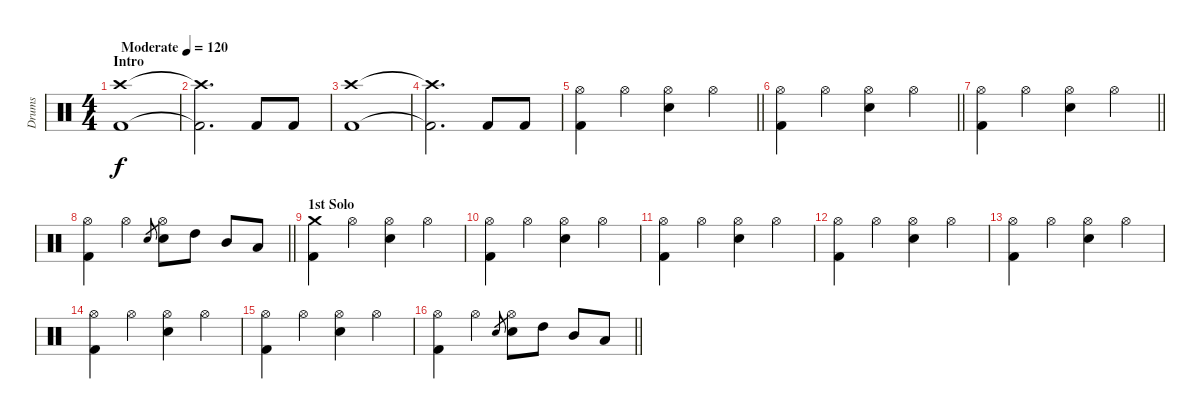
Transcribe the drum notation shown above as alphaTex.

\track ("Drums" "Drums") {instrument percussion}
\staff {score}
\articulation defaults
\ts (4 4)
\section ("" "Intro")
\tempo (120 "Moderate")
\clef neutral
\ks c
("Crash high (hit)" "Kick (hit) 2").1{dy f} |
("Crash high (hit)"{t} "Kick (hit) 2"{t}).2{d} "Kick (hit) 2".8 "Kick (hit) 2".8 |
("Crash high (hit)" "Kick (hit) 2").1 |
("Crash high (hit)"{t} "Kick (hit) 2"{t}).2{d} "Kick (hit) 2".8 "Kick (hit) 2".8 |
\barLineRight lightlight
("Hi-Hat (open)" "Kick (hit) 2").4 "Hi-Hat (open)".4 ("Hi-Hat (open)" "Electric Snare (hit)").4 "Hi-Hat (open)".4 |
\barLineRight lightlight
("Hi-Hat (open)" "Kick (hit) 2").4 "Hi-Hat (open)".4 ("Hi-Hat (open)" "Electric Snare (hit)").4 "Hi-Hat (open)".4 |
\barLineRight lightlight
("Hi-Hat (open)" "Kick (hit) 2").4 "Hi-Hat (open)".4 ("Hi-Hat (open)" "Electric Snare (hit)").4 "Hi-Hat (open)".4 |
\barLineRight lightlight
("Hi-Hat (open)" "Kick (hit) 2").4 "Hi-Hat (open)".4 "Electric Snare (hit)".8{gr} ("Hi-Hat (open)" "Electric Snare (hit)").8 "High Tom (hit)".8 "Mid Tom (hit)".8 "Low Tom (hit)".8 |
\section ("" "1st Solo ")
("Crash medium (hit)" "Kick (hit) 2").4 "Hi-Hat (open)".4 ("Hi-Hat (open)" "Electric Snare (hit)").4 "Hi-Hat (open)".4 |
("Hi-Hat (open)" "Kick (hit) 2").4 "Hi-Hat (open)".4 ("Hi-Hat (open)" "Electric Snare (hit)").4 "Hi-Hat (open)".4 |
("Hi-Hat (open)" "Kick (hit) 2").4 "Hi-Hat (open)".4 ("Hi-Hat (open)" "Electric Snare (hit)").4 "Hi-Hat (open)".4 |
("Hi-Hat (open)" "Kick (hit) 2").4 "Hi-Hat (open)".4 ("Hi-Hat (open)" "Electric Snare (hit)").4 "Hi-Hat (open)".4 |
("Hi-Hat (open)" "Kick (hit) 2").4 "Hi-Hat (open)".4 ("Hi-Hat (open)" "Electric Snare (hit)").4 "Hi-Hat (open)".4 |
("Hi-Hat (open)" "Kick (hit) 2").4 "Hi-Hat (open)".4 ("Hi-Hat (open)" "Electric Snare (hit)").4 "Hi-Hat (open)".4 |
("Hi-Hat (open)" "Kick (hit) 2").4 "Hi-Hat (open)".4 ("Hi-Hat (open)" "Electric Snare (hit)").4 "Hi-Hat (open)".4 |
\barLineRight lightlight
("Hi-Hat (open)" "Kick (hit) 2").4 "Hi-Hat (open)".4 "Electric Snare (hit)".8{gr} ("Hi-Hat (open)" "Electric Snare (hit)").8 "High Tom (hit)".8 "Mid Tom (hit)".8 "Low Tom (hit)".8
